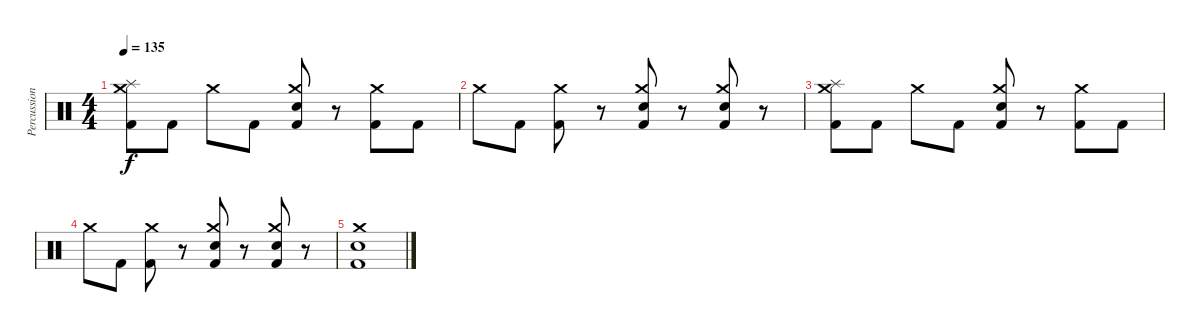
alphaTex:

\track ("Percussion" "Percussion") {instrument percussion}
\staff {score}
\articulation defaults
\ts (4 4)
\tempo 135
\clef neutral
\ks c
("Kick (hit) 2" "Crash medium (hit)" "Splash (hit)").8{dy f} "Kick (hit) 2".8 "Crash medium (hit)".8 "Kick (hit) 2".8 ("Kick (hit) 2" "Snare (hit) 2" "Crash medium (hit)").8 r.8 ("Kick (hit) 2" "Crash medium (hit)").8 "Kick (hit) 2".8 |
"Crash medium (hit)".8 "Kick (hit) 2".8 ("Kick (hit) 2" "Crash medium (hit)").8 r.8 ("Kick (hit) 2" "Snare (hit) 2" "Crash medium (hit)").8 r.8 ("Kick (hit) 2" "Snare (hit) 2" "Crash medium (hit)").8 r.8 |
("Kick (hit) 2" "Crash medium (hit)" "Splash (hit)").8 "Kick (hit) 2".8 "Crash medium (hit)".8 "Kick (hit) 2".8 ("Kick (hit) 2" "Snare (hit) 2" "Crash medium (hit)").8 r.8 ("Kick (hit) 2" "Crash medium (hit)").8 "Kick (hit) 2".8 |
"Crash medium (hit)".8 "Kick (hit) 2".8 ("Kick (hit) 2" "Crash medium (hit)").8 r.8 ("Kick (hit) 2" "Snare (hit) 2" "Crash medium (hit)").8 r.8 ("Kick (hit) 2" "Snare (hit) 2" "Crash medium (hit)").8 r.8 |
("Kick (hit) 2" "Snare (hit) 2" "Crash medium (hit)").1
